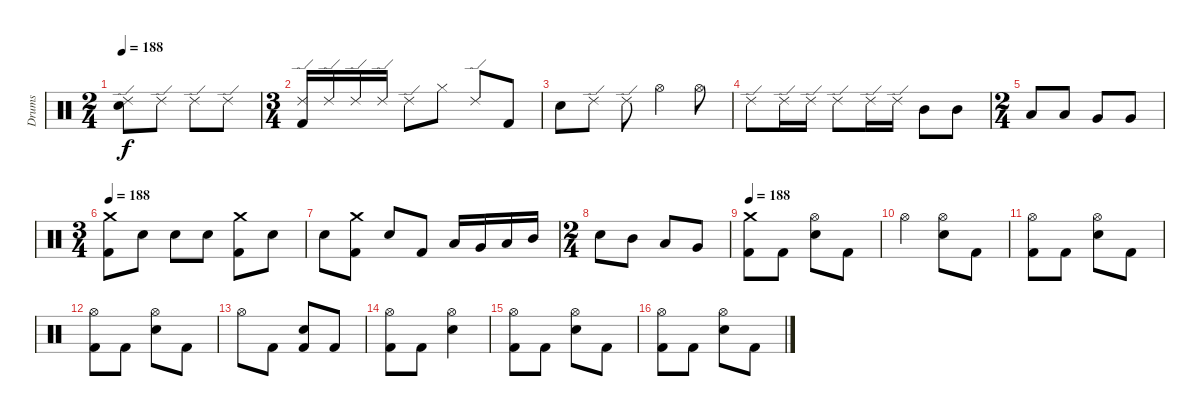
\track ("Drums" "Drums") {instrument percussion}
\staff {score}
\articulation defaults
\ts (2 4)
\tempo 188
\clef neutral
\ks c
("Electric Snare (hit)" "Ride (edge) 2").8{dy f} "Ride (edge) 2".8 "Ride (edge) 2".8 "Ride (edge) 2".8 |
\ts (3 4)
("Ride (edge) 2" "Kick (hit) 2").16 "Ride (edge) 2".16 "Ride (edge) 2".16 "Ride (edge) 2".16 "Ride (edge) 2".8 "Hi-Hat (closed)".8 "Ride (edge) 2".8 "Kick (hit) 2".8 |
"Electric Snare (hit)".8 "Ride (edge) 2".8 "Ride (edge) 2".8 "Hi-Hat (open)".4 "Hi-Hat (open)".8 |
"Ride (edge) 2".8 "Ride (edge) 2".16 "Ride (edge) 2".16 "Ride (edge) 2".8 "Ride (edge) 2".16 "Ride (edge) 2".16 "Mid Tom (hit)".8 "Mid Tom (hit)".8 |
\ts (2 4)
"Low Tom (hit)".8 "Low Tom (hit)".8 "Very Low Tom (hit)".8 "Very Low Tom (hit)".8 |
\ts (3 4)
\tempo 188
("Crash medium (hit)" "Kick (hit) 2").8 "Electric Snare (hit)".8 "Electric Snare (hit)".8 "Electric Snare (hit)".8 ("Crash medium (hit)" "Kick (hit) 2").8 "Electric Snare (hit)".8 |
"Electric Snare (hit)".8 ("Crash medium (hit)" "Kick (hit) 2").8 "Electric Snare (hit)".8 "Kick (hit) 2".8 "Low Floor Tom (hit)".16 "Very Low Tom (hit)".16 "Low Tom (hit)".16 "Mid Tom (hit)".16 |
\ts (2 4)
"Electric Snare (hit)".8 "Mid Tom (hit)".8 "Low Tom (hit)".8 "Very Low Tom (hit)".8 |
\tempo 188
("Crash medium (hit)" "Kick (hit) 2").8 "Kick (hit) 2".8 ("Electric Snare (hit)" "Hi-Hat (open)").8 "Kick (hit) 2".8 |
"Hi-Hat (open)".4 ("Electric Snare (hit)" "Hi-Hat (open)").8 "Kick (hit) 2".8 |
("Hi-Hat (open)" "Kick (hit) 2").8 "Kick (hit) 2".8 ("Electric Snare (hit)" "Hi-Hat (open)").8 "Kick (hit) 2".8 |
("Hi-Hat (open)" "Kick (hit) 2").8 "Kick (hit) 2".8 ("Electric Snare (hit)" "Hi-Hat (open)").8 "Kick (hit) 2".8 |
"Hi-Hat (open)".8 "Kick (hit) 2".8 ("Electric Snare (hit)" "Kick (hit) 2").8 "Kick (hit) 2".8 |
("Hi-Hat (open)" "Kick (hit) 2").8 "Kick (hit) 2".8 ("Electric Snare (hit)" "Hi-Hat (open)").4 |
("Hi-Hat (open)" "Kick (hit) 2").8 "Kick (hit) 2".8 ("Electric Snare (hit)" "Hi-Hat (open)").8 "Kick (hit) 2".8 |
("Hi-Hat (open)" "Kick (hit) 2").8 "Kick (hit) 2".8 ("Electric Snare (hit)" "Hi-Hat (open)").8 "Kick (hit) 2".8
